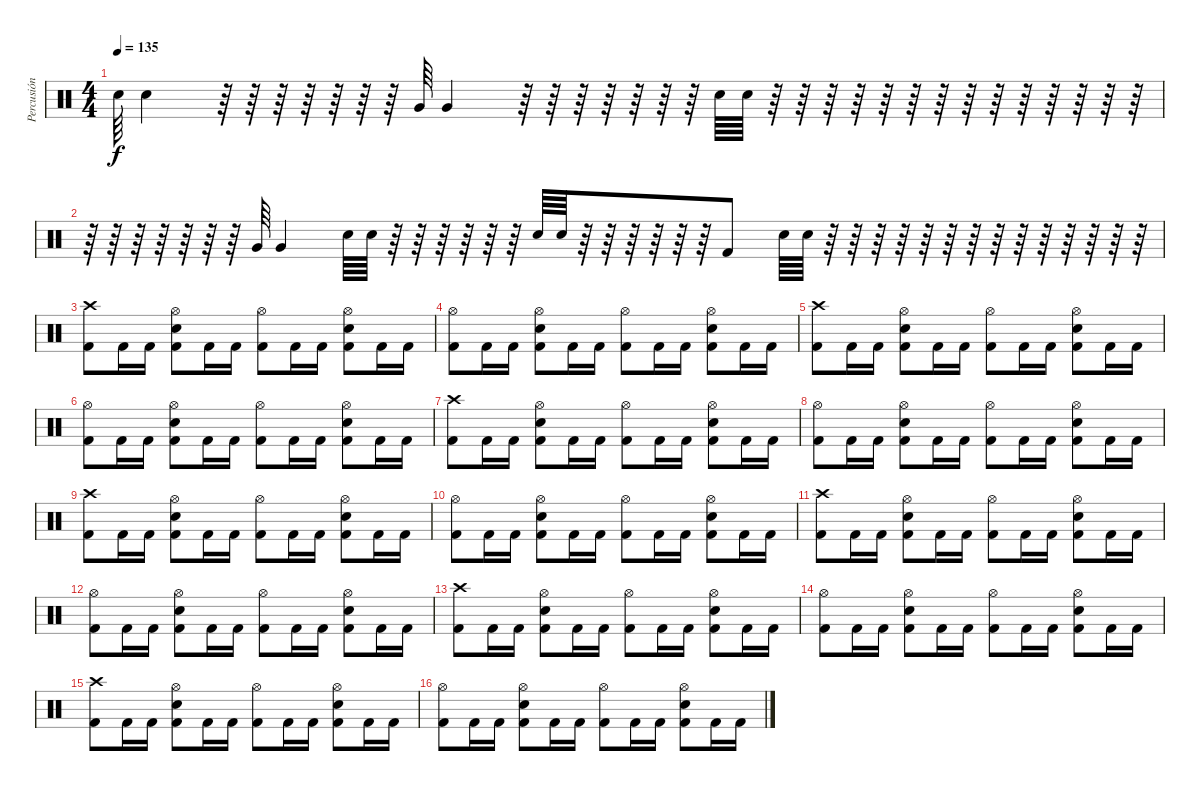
\track ("Percusión" "Percusión") {instrument percussion}
\staff {score}
\articulation defaults
\ts (4 4)
\tempo 135
\clef neutral
\ks c "Snare (hit) 2".64{dy f} "Snare (hit) 2".4
r.64 r.64 r.64 r.64 r.64 r.64 r.64 "Very Low Tom (hit)".64 "Very Low Tom (hit)".4 r.64 r.64 r.64 r.64 r.64 r.64 r.64 "Snare (hit) 2".64 "Snare (hit) 2".64 r.64 r.64 r.64 r.64 r.64 r.64 r.64 r.64 r.64 r.64 r.64 r.64 r.64 r.64 |
r.64 r.64 r.64 r.64 r.64 r.64 r.64 "Very Low Tom (hit)".64 "Very Low Tom (hit)".4 "Snare (hit) 2".64 "Snare (hit) 2".64 r.64 r.64 r.64 r.64 r.64 r.64 "Snare (hit) 2".64 "Snare (hit) 2".64 r.64 r.64 r.64 r.64 r.64 r.64 "Kick (hit) 2".8 "Snare (hit) 2".64 "Snare (hit) 2".64 r.64 r.64 r.64 r.64 r.64 r.64 r.64 r.64 r.64 r.64 r.64 r.64 r.64 r.64 |
("Kick (hit) 2" "Crash high (hit)").8 "Kick (hit) 2".16 "Kick (hit) 2".16 ("Kick (hit) 2" "Hi-Hat (open)" "Snare (hit) 2").8 "Kick (hit) 2".16 "Kick (hit) 2".16 ("Kick (hit) 2" "Hi-Hat (open)").8 "Kick (hit) 2".16 "Kick (hit) 2".16 ("Kick (hit) 2" "Hi-Hat (open)" "Snare (hit) 2").8 "Kick (hit) 2".16 "Kick (hit) 2".16 |
("Kick (hit) 2" "Hi-Hat (open)").8 "Kick (hit) 2".16 "Kick (hit) 2".16 ("Kick (hit) 2" "Hi-Hat (open)" "Snare (hit) 2").8 "Kick (hit) 2".16 "Kick (hit) 2".16 ("Kick (hit) 2" "Hi-Hat (open)").8 "Kick (hit) 2".16 "Kick (hit) 2".16 ("Kick (hit) 2" "Hi-Hat (open)" "Snare (hit) 2").8 "Kick (hit) 2".16 "Kick (hit) 2".16 |
("Kick (hit) 2" "Crash high (hit)").8 "Kick (hit) 2".16 "Kick (hit) 2".16 ("Kick (hit) 2" "Hi-Hat (open)" "Snare (hit) 2").8 "Kick (hit) 2".16 "Kick (hit) 2".16 ("Kick (hit) 2" "Hi-Hat (open)").8 "Kick (hit) 2".16 "Kick (hit) 2".16 ("Kick (hit) 2" "Hi-Hat (open)" "Snare (hit) 2").8 "Kick (hit) 2".16 "Kick (hit) 2".16 |
("Kick (hit) 2" "Hi-Hat (open)").8 "Kick (hit) 2".16 "Kick (hit) 2".16 ("Kick (hit) 2" "Hi-Hat (open)" "Snare (hit) 2").8 "Kick (hit) 2".16 "Kick (hit) 2".16 ("Kick (hit) 2" "Hi-Hat (open)").8 "Kick (hit) 2".16 "Kick (hit) 2".16 ("Kick (hit) 2" "Hi-Hat (open)" "Snare (hit) 2").8 "Kick (hit) 2".16 "Kick (hit) 2".16 |
("Kick (hit) 2" "Crash high (hit)").8 "Kick (hit) 2".16 "Kick (hit) 2".16 ("Kick (hit) 2" "Hi-Hat (open)" "Snare (hit) 2").8 "Kick (hit) 2".16 "Kick (hit) 2".16 ("Kick (hit) 2" "Hi-Hat (open)").8 "Kick (hit) 2".16 "Kick (hit) 2".16 ("Kick (hit) 2" "Hi-Hat (open)" "Snare (hit) 2").8 "Kick (hit) 2".16 "Kick (hit) 2".16 |
("Kick (hit) 2" "Hi-Hat (open)").8 "Kick (hit) 2".16 "Kick (hit) 2".16 ("Kick (hit) 2" "Hi-Hat (open)" "Snare (hit) 2").8 "Kick (hit) 2".16 "Kick (hit) 2".16 ("Kick (hit) 2" "Hi-Hat (open)").8 "Kick (hit) 2".16 "Kick (hit) 2".16 ("Kick (hit) 2" "Hi-Hat (open)" "Snare (hit) 2").8 "Kick (hit) 2".16 "Kick (hit) 2".16 |
("Kick (hit) 2" "Crash high (hit)").8 "Kick (hit) 2".16 "Kick (hit) 2".16 ("Kick (hit) 2" "Hi-Hat (open)" "Snare (hit) 2").8 "Kick (hit) 2".16 "Kick (hit) 2".16 ("Kick (hit) 2" "Hi-Hat (open)").8 "Kick (hit) 2".16 "Kick (hit) 2".16 ("Kick (hit) 2" "Hi-Hat (open)" "Snare (hit) 2").8 "Kick (hit) 2".16 "Kick (hit) 2".16 |
("Kick (hit) 2" "Hi-Hat (open)").8 "Kick (hit) 2".16 "Kick (hit) 2".16 ("Kick (hit) 2" "Hi-Hat (open)" "Snare (hit) 2").8 "Kick (hit) 2".16 "Kick (hit) 2".16 ("Kick (hit) 2" "Hi-Hat (open)").8 "Kick (hit) 2".16 "Kick (hit) 2".16 ("Kick (hit) 2" "Hi-Hat (open)" "Snare (hit) 2").8 "Kick (hit) 2".16 "Kick (hit) 2".16 |
("Kick (hit) 2" "Crash high (hit)").8 "Kick (hit) 2".16 "Kick (hit) 2".16 ("Kick (hit) 2" "Hi-Hat (open)" "Snare (hit) 2").8 "Kick (hit) 2".16 "Kick (hit) 2".16 ("Kick (hit) 2" "Hi-Hat (open)").8 "Kick (hit) 2".16 "Kick (hit) 2".16 ("Kick (hit) 2" "Hi-Hat (open)" "Snare (hit) 2").8 "Kick (hit) 2".16 "Kick (hit) 2".16 |
("Kick (hit) 2" "Hi-Hat (open)").8 "Kick (hit) 2".16 "Kick (hit) 2".16 ("Kick (hit) 2" "Hi-Hat (open)" "Snare (hit) 2").8 "Kick (hit) 2".16 "Kick (hit) 2".16 ("Kick (hit) 2" "Hi-Hat (open)").8 "Kick (hit) 2".16 "Kick (hit) 2".16 ("Kick (hit) 2" "Hi-Hat (open)" "Snare (hit) 2").8 "Kick (hit) 2".16 "Kick (hit) 2".16 |
("Kick (hit) 2" "Crash high (hit)").8 "Kick (hit) 2".16 "Kick (hit) 2".16 ("Kick (hit) 2" "Hi-Hat (open)" "Snare (hit) 2").8 "Kick (hit) 2".16 "Kick (hit) 2".16 ("Kick (hit) 2" "Hi-Hat (open)").8 "Kick (hit) 2".16 "Kick (hit) 2".16 ("Kick (hit) 2" "Hi-Hat (open)" "Snare (hit) 2").8 "Kick (hit) 2".16 "Kick (hit) 2".16 |
("Kick (hit) 2" "Hi-Hat (open)").8 "Kick (hit) 2".16 "Kick (hit) 2".16 ("Kick (hit) 2" "Hi-Hat (open)" "Snare (hit) 2").8 "Kick (hit) 2".16 "Kick (hit) 2".16 ("Kick (hit) 2" "Hi-Hat (open)").8 "Kick (hit) 2".16 "Kick (hit) 2".16 ("Kick (hit) 2" "Hi-Hat (open)" "Snare (hit) 2").8 "Kick (hit) 2".16 "Kick (hit) 2".16 |
("Kick (hit) 2" "Crash high (hit)").8 "Kick (hit) 2".16 "Kick (hit) 2".16 ("Kick (hit) 2" "Hi-Hat (open)" "Snare (hit) 2").8 "Kick (hit) 2".16 "Kick (hit) 2".16 ("Kick (hit) 2" "Hi-Hat (open)").8 "Kick (hit) 2".16 "Kick (hit) 2".16 ("Kick (hit) 2" "Hi-Hat (open)" "Snare (hit) 2").8 "Kick (hit) 2".16 "Kick (hit) 2".16 |
("Kick (hit) 2" "Hi-Hat (open)").8 "Kick (hit) 2".16 "Kick (hit) 2".16 ("Kick (hit) 2" "Hi-Hat (open)" "Snare (hit) 2").8 "Kick (hit) 2".16 "Kick (hit) 2".16 ("Kick (hit) 2" "Hi-Hat (open)").8 "Kick (hit) 2".16 "Kick (hit) 2".16 ("Kick (hit) 2" "Hi-Hat (open)" "Snare (hit) 2").8 "Kick (hit) 2".16 "Kick (hit) 2".16
